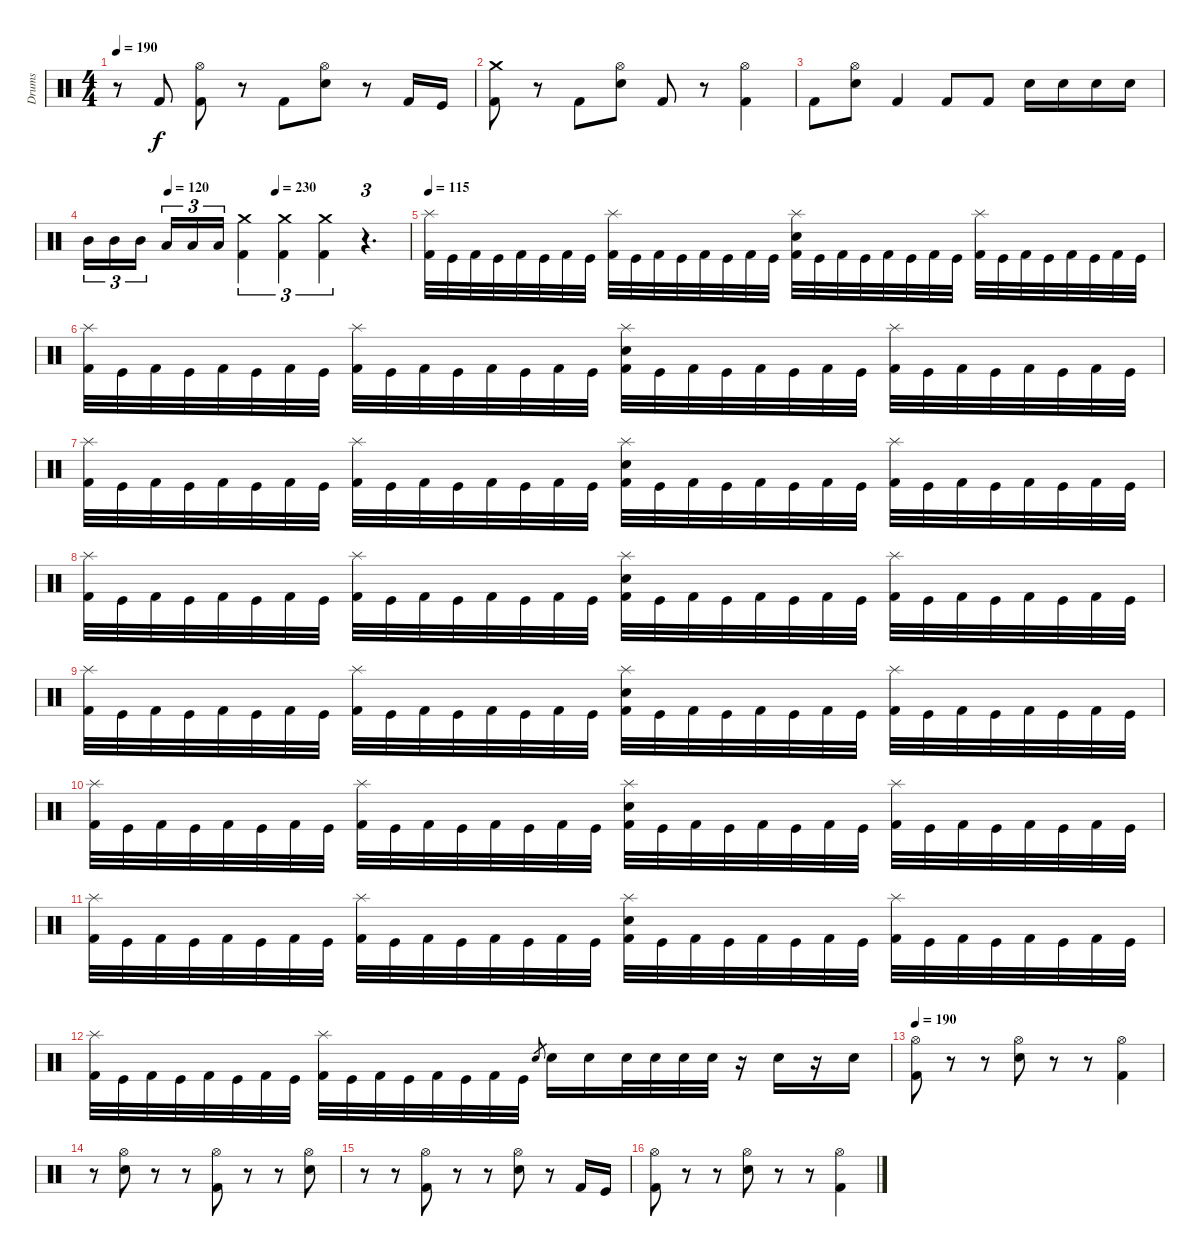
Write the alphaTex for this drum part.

\track ("Drums" "Drums") {instrument percussion}
\staff {score}
\articulation defaults
\ts (4 4)
\tempo 190
\clef neutral
\ks c
r.8{dy f} "Kick (hit) 2".8 ("Hi-Hat (open)" "Kick (hit) 2").8 r.8 "Kick (hit) 2".8 ("Hi-Hat (open)" "Electric Snare (hit)").8 r.8 "Kick (hit) 2".16 "Kick (hit)".16 |
("Crash medium (hit)" "Kick (hit) 2").8 r.8 "Kick (hit) 2".8 ("Hi-Hat (open)" "Electric Snare (hit)").8 "Kick (hit) 2".8 r.8 ("Hi-Hat (open)" "Kick (hit) 2").4 |
"Kick (hit) 2".8 ("Hi-Hat (open)" "Electric Snare (hit)").8 "Kick (hit) 2".4 "Kick (hit) 2".8 "Kick (hit) 2".8 "Electric Snare (hit)".16 "Electric Snare (hit)".16 "Electric Snare (hit)".16 "Electric Snare (hit)".16 |
\tempo (120 0.25)
\tempo (230 0.5833333333333334)
"Mid Tom (hit)".16{tu (3 2)} "Mid Tom (hit)".16{tu (3 2)} "Mid Tom (hit)".16{tu (3 2)} "Low Tom (hit)".16{tu (3 2)} "Low Tom (hit)".16{tu (3 2)} "Low Tom (hit)".16{tu (3 2)} ("Crash medium (hit)" "Kick (hit) 2").4{tu (3 2)} ("Crash medium (hit)" "Kick (hit) 2").4{tu (3 2)} ("Crash medium (hit)" "Kick (hit) 2").4{tu (3 2)} r.4{d tu (3 2)} |
\tempo 115
("Splash (hit)" "Kick (hit) 2").32 "Kick (hit)".32 "Kick (hit) 2".32 "Kick (hit)".32 "Kick (hit) 2".32 "Kick (hit)".32 "Kick (hit) 2".32 "Kick (hit)".32 ("Splash (hit)" "Kick (hit) 2").32 "Kick (hit)".32 "Kick (hit) 2".32 "Kick (hit)".32 "Kick (hit) 2".32 "Kick (hit)".32 "Kick (hit) 2".32 "Kick (hit)".32 ("Splash (hit)" "Electric Snare (hit)" "Kick (hit) 2").32 "Kick (hit)".32 "Kick (hit) 2".32 "Kick (hit)".32 "Kick (hit) 2".32 "Kick (hit)".32 "Kick (hit) 2".32 "Kick (hit)".32 ("Splash (hit)" "Kick (hit) 2").32 "Kick (hit)".32 "Kick (hit) 2".32 "Kick (hit)".32 "Kick (hit) 2".32 "Kick (hit)".32 "Kick (hit) 2".32 "Kick (hit)".32 |
("Splash (hit)" "Kick (hit) 2").32 "Kick (hit)".32 "Kick (hit) 2".32 "Kick (hit)".32 "Kick (hit) 2".32 "Kick (hit)".32 "Kick (hit) 2".32 "Kick (hit)".32 ("Splash (hit)" "Kick (hit) 2").32 "Kick (hit)".32 "Kick (hit) 2".32 "Kick (hit)".32 "Kick (hit) 2".32 "Kick (hit)".32 "Kick (hit) 2".32 "Kick (hit)".32 ("Splash (hit)" "Electric Snare (hit)" "Kick (hit) 2").32 "Kick (hit)".32 "Kick (hit) 2".32 "Kick (hit)".32 "Kick (hit) 2".32 "Kick (hit)".32 "Kick (hit) 2".32 "Kick (hit)".32 ("Splash (hit)" "Kick (hit) 2").32 "Kick (hit)".32 "Kick (hit) 2".32 "Kick (hit)".32 "Kick (hit) 2".32 "Kick (hit)".32 "Kick (hit) 2".32 "Kick (hit)".32 |
("Splash (hit)" "Kick (hit) 2").32 "Kick (hit)".32 "Kick (hit) 2".32 "Kick (hit)".32 "Kick (hit) 2".32 "Kick (hit)".32 "Kick (hit) 2".32 "Kick (hit)".32 ("Splash (hit)" "Kick (hit) 2").32 "Kick (hit)".32 "Kick (hit) 2".32 "Kick (hit)".32 "Kick (hit) 2".32 "Kick (hit)".32 "Kick (hit) 2".32 "Kick (hit)".32 ("Splash (hit)" "Electric Snare (hit)" "Kick (hit) 2").32 "Kick (hit)".32 "Kick (hit) 2".32 "Kick (hit)".32 "Kick (hit) 2".32 "Kick (hit)".32 "Kick (hit) 2".32 "Kick (hit)".32 ("Splash (hit)" "Kick (hit) 2").32 "Kick (hit)".32 "Kick (hit) 2".32 "Kick (hit)".32 "Kick (hit) 2".32 "Kick (hit)".32 "Kick (hit) 2".32 "Kick (hit)".32 |
("Splash (hit)" "Kick (hit) 2").32 "Kick (hit)".32 "Kick (hit) 2".32 "Kick (hit)".32 "Kick (hit) 2".32 "Kick (hit)".32 "Kick (hit) 2".32 "Kick (hit)".32 ("Splash (hit)" "Kick (hit) 2").32 "Kick (hit)".32 "Kick (hit) 2".32 "Kick (hit)".32 "Kick (hit) 2".32 "Kick (hit)".32 "Kick (hit) 2".32 "Kick (hit)".32 ("Splash (hit)" "Electric Snare (hit)" "Kick (hit) 2").32 "Kick (hit)".32 "Kick (hit) 2".32 "Kick (hit)".32 "Kick (hit) 2".32 "Kick (hit)".32 "Kick (hit) 2".32 "Kick (hit)".32 ("Splash (hit)" "Kick (hit) 2").32 "Kick (hit)".32 "Kick (hit) 2".32 "Kick (hit)".32 "Kick (hit) 2".32 "Kick (hit)".32 "Kick (hit) 2".32 "Kick (hit)".32 |
("Splash (hit)" "Kick (hit) 2").32 "Kick (hit)".32 "Kick (hit) 2".32 "Kick (hit)".32 "Kick (hit) 2".32 "Kick (hit)".32 "Kick (hit) 2".32 "Kick (hit)".32 ("Splash (hit)" "Kick (hit) 2").32 "Kick (hit)".32 "Kick (hit) 2".32 "Kick (hit)".32 "Kick (hit) 2".32 "Kick (hit)".32 "Kick (hit) 2".32 "Kick (hit)".32 ("Splash (hit)" "Electric Snare (hit)" "Kick (hit) 2").32 "Kick (hit)".32 "Kick (hit) 2".32 "Kick (hit)".32 "Kick (hit) 2".32 "Kick (hit)".32 "Kick (hit) 2".32 "Kick (hit)".32 ("Splash (hit)" "Kick (hit) 2").32 "Kick (hit)".32 "Kick (hit) 2".32 "Kick (hit)".32 "Kick (hit) 2".32 "Kick (hit)".32 "Kick (hit) 2".32 "Kick (hit)".32 |
("Splash (hit)" "Kick (hit) 2").32 "Kick (hit)".32 "Kick (hit) 2".32 "Kick (hit)".32 "Kick (hit) 2".32 "Kick (hit)".32 "Kick (hit) 2".32 "Kick (hit)".32 ("Splash (hit)" "Kick (hit) 2").32 "Kick (hit)".32 "Kick (hit) 2".32 "Kick (hit)".32 "Kick (hit) 2".32 "Kick (hit)".32 "Kick (hit) 2".32 "Kick (hit)".32 ("Splash (hit)" "Electric Snare (hit)" "Kick (hit) 2").32 "Kick (hit)".32 "Kick (hit) 2".32 "Kick (hit)".32 "Kick (hit) 2".32 "Kick (hit)".32 "Kick (hit) 2".32 "Kick (hit)".32 ("Splash (hit)" "Kick (hit) 2").32 "Kick (hit)".32 "Kick (hit) 2".32 "Kick (hit)".32 "Kick (hit) 2".32 "Kick (hit)".32 "Kick (hit) 2".32 "Kick (hit)".32 |
("Splash (hit)" "Kick (hit) 2").32 "Kick (hit)".32 "Kick (hit) 2".32 "Kick (hit)".32 "Kick (hit) 2".32 "Kick (hit)".32 "Kick (hit) 2".32 "Kick (hit)".32 ("Splash (hit)" "Kick (hit) 2").32 "Kick (hit)".32 "Kick (hit) 2".32 "Kick (hit)".32 "Kick (hit) 2".32 "Kick (hit)".32 "Kick (hit) 2".32 "Kick (hit)".32 ("Splash (hit)" "Electric Snare (hit)" "Kick (hit) 2").32 "Kick (hit)".32 "Kick (hit) 2".32 "Kick (hit)".32 "Kick (hit) 2".32 "Kick (hit)".32 "Kick (hit) 2".32 "Kick (hit)".32 ("Splash (hit)" "Kick (hit) 2").32 "Kick (hit)".32 "Kick (hit) 2".32 "Kick (hit)".32 "Kick (hit) 2".32 "Kick (hit)".32 "Kick (hit) 2".32 "Kick (hit)".32 |
("Splash (hit)" "Kick (hit) 2").32 "Kick (hit)".32 "Kick (hit) 2".32 "Kick (hit)".32 "Kick (hit) 2".32 "Kick (hit)".32 "Kick (hit) 2".32 "Kick (hit)".32 ("Splash (hit)" "Kick (hit) 2").32 "Kick (hit)".32 "Kick (hit) 2".32 "Kick (hit)".32 "Kick (hit) 2".32 "Kick (hit)".32 "Kick (hit) 2".32 "Kick (hit)".32 "Electric Snare (hit)".8{gr} "Electric Snare (hit)".16 "Electric Snare (hit)".16 "Electric Snare (hit)".32 "Electric Snare (hit)".32 "Electric Snare (hit)".32 "Electric Snare (hit)".32 r.16 "Electric Snare (hit)".16 r.16 "Electric Snare (hit)".16 |
\tempo 190
("Hi-Hat (open)" "Kick (hit) 2").8 r.8 r.8 ("Hi-Hat (open)" "Electric Snare (hit)").8 r.8 r.8 ("Hi-Hat (open)" "Kick (hit) 2").4 |
r.8 ("Hi-Hat (open)" "Electric Snare (hit)").8 r.8 r.8 ("Hi-Hat (open)" "Kick (hit) 2").8 r.8 r.8 ("Hi-Hat (open)" "Electric Snare (hit)").8 |
r.8 r.8 ("Hi-Hat (open)" "Kick (hit) 2").8 r.8 r.8 ("Hi-Hat (open)" "Electric Snare (hit)").8 r.8 "Kick (hit) 2".16 "Kick (hit)".16 |
("Hi-Hat (open)" "Kick (hit) 2").8 r.8 r.8 ("Hi-Hat (open)" "Electric Snare (hit)").8 r.8 r.8 ("Hi-Hat (open)" "Kick (hit) 2").4
